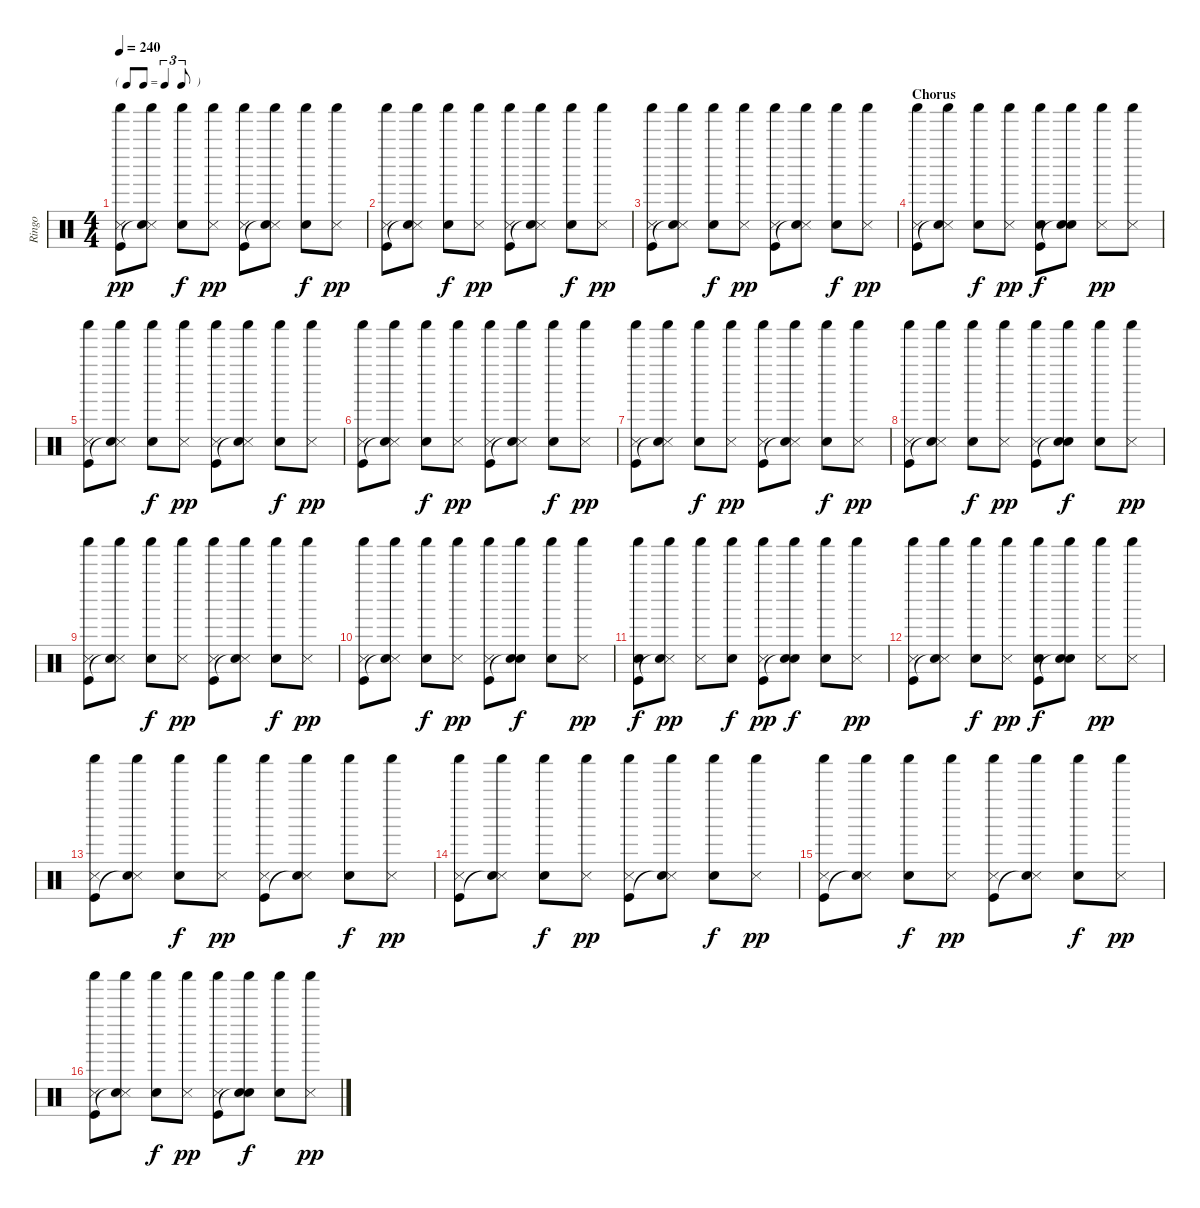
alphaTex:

\track ("Ringo" "Ringo") {instrument percussion}
\staff {score}
\articulation defaults
\ts (4 4)
\tf triplet8th
\tempo 240
\clef neutral
\ks c
("Shaker (hit)" "Snare (side stick) 3" "Kick (hit)").8{dy pp} ("Shaker (hit)" "Snare (side stick) 3" "Snare (hit)"{t}).8 ("Shaker (hit)" "Snare (hit) 2").8{dy f} ("Shaker (hit)" "Snare (side stick) 3").8{dy pp} ("Shaker (hit)" "Snare (side stick) 3" "Kick (hit)").8 ("Shaker (hit)" "Snare (side stick) 3" "Snare (hit)"{t}).8 ("Shaker (hit)" "Snare (hit) 2").8{dy f} ("Shaker (hit)" "Snare (side stick) 3").8{dy pp} |
("Shaker (hit)" "Snare (side stick) 3" "Kick (hit)").8 ("Shaker (hit)" "Snare (side stick) 3" "Snare (hit)"{t}).8 ("Shaker (hit)" "Snare (hit) 2").8{dy f} ("Shaker (hit)" "Snare (side stick) 3").8{dy pp} ("Shaker (hit)" "Snare (side stick) 3" "Kick (hit)").8 ("Shaker (hit)" "Snare (side stick) 3" "Snare (hit)"{t}).8 ("Shaker (hit)" "Snare (hit) 2").8{dy f} ("Shaker (hit)" "Snare (side stick) 3").8{dy pp} |
("Shaker (hit)" "Snare (side stick) 3" "Kick (hit)").8 ("Shaker (hit)" "Snare (side stick) 3" "Snare (hit)"{t}).8 ("Shaker (hit)" "Snare (hit) 2").8{dy f} ("Shaker (hit)" "Snare (side stick) 3").8{dy pp} ("Shaker (hit)" "Snare (side stick) 3" "Kick (hit)").8 ("Shaker (hit)" "Snare (side stick) 3" "Snare (hit)"{t}).8 ("Shaker (hit)" "Snare (hit) 2").8{dy f} ("Shaker (hit)" "Snare (side stick) 3").8{dy pp} |
\section ("" "Chorus")
("Shaker (hit)" "Snare (side stick) 3" "Kick (hit)").8 ("Shaker (hit)" "Snare (side stick) 3" "Snare (hit)"{t}).8 ("Shaker (hit)" "Snare (hit) 2").8{dy f} ("Shaker (hit)" "Snare (side stick) 3").8{dy pp} ("Shaker (hit)" "Snare (hit) 2" "Kick (hit)").8{dy f} ("Shaker (hit)" "Snare (hit) 2" "Snare (hit)"{t}).8 ("Shaker (hit)" "Snare (side stick) 3").8{dy pp} ("Shaker (hit)" "Snare (side stick) 3").8 |
("Shaker (hit)" "Snare (side stick) 3" "Kick (hit)").8 ("Shaker (hit)" "Snare (side stick) 3" "Snare (hit)"{t}).8 ("Shaker (hit)" "Snare (hit) 2").8{dy f} ("Shaker (hit)" "Snare (side stick) 3").8{dy pp} ("Shaker (hit)" "Snare (side stick) 3" "Kick (hit)").8 ("Shaker (hit)" "Snare (side stick) 3" "Snare (hit)"{t}).8 ("Shaker (hit)" "Snare (hit) 2").8{dy f} ("Shaker (hit)" "Snare (side stick) 3").8{dy pp} |
("Shaker (hit)" "Snare (side stick) 3" "Kick (hit)").8 ("Shaker (hit)" "Snare (side stick) 3" "Snare (hit)"{t}).8 ("Shaker (hit)" "Snare (hit) 2").8{dy f} ("Shaker (hit)" "Snare (side stick) 3").8{dy pp} ("Shaker (hit)" "Snare (side stick) 3" "Kick (hit)").8 ("Shaker (hit)" "Snare (side stick) 3" "Snare (hit)"{t}).8 ("Shaker (hit)" "Snare (hit) 2").8{dy f} ("Shaker (hit)" "Snare (side stick) 3").8{dy pp} |
("Shaker (hit)" "Snare (side stick) 3" "Kick (hit)").8 ("Shaker (hit)" "Snare (side stick) 3" "Snare (hit)"{t}).8 ("Shaker (hit)" "Snare (hit) 2").8{dy f} ("Shaker (hit)" "Snare (side stick) 3").8{dy pp} ("Shaker (hit)" "Snare (side stick) 3" "Kick (hit)").8 ("Shaker (hit)" "Snare (side stick) 3" "Snare (hit)"{t}).8 ("Shaker (hit)" "Snare (hit) 2").8{dy f} ("Shaker (hit)" "Snare (side stick) 3").8{dy pp} |
("Shaker (hit)" "Snare (side stick) 3" "Kick (hit)").8 ("Shaker (hit)" "Snare (side stick) 3" "Snare (hit)"{t}).8 ("Shaker (hit)" "Snare (hit) 2").8{dy f} ("Shaker (hit)" "Snare (side stick) 3").8{dy pp} ("Shaker (hit)" "Snare (side stick) 3" "Kick (hit)").8 ("Shaker (hit)" "Snare (hit) 2" "Snare (hit)"{t}).8{dy f} ("Shaker (hit)" "Snare (hit) 2").8 ("Shaker (hit)" "Snare (side stick) 3").8{dy pp} |
("Shaker (hit)" "Snare (side stick) 3" "Kick (hit)").8 ("Shaker (hit)" "Snare (side stick) 3" "Snare (hit)"{t}).8 ("Shaker (hit)" "Snare (hit) 2").8{dy f} ("Shaker (hit)" "Snare (side stick) 3").8{dy pp} ("Shaker (hit)" "Snare (side stick) 3" "Kick (hit)").8 ("Shaker (hit)" "Snare (side stick) 3" "Snare (hit)"{t}).8 ("Shaker (hit)" "Snare (hit) 2").8{dy f} ("Shaker (hit)" "Snare (side stick) 3").8{dy pp} |
("Shaker (hit)" "Snare (side stick) 3" "Kick (hit)").8 ("Shaker (hit)" "Snare (side stick) 3" "Snare (hit)"{t}).8 ("Shaker (hit)" "Snare (hit) 2").8{dy f} ("Shaker (hit)" "Snare (side stick) 3").8{dy pp} ("Shaker (hit)" "Snare (side stick) 3" "Kick (hit)").8 ("Shaker (hit)" "Snare (hit) 2" "Snare (hit)"{t}).8{dy f} ("Shaker (hit)" "Snare (hit) 2").8 ("Shaker (hit)" "Snare (side stick) 3").8{dy pp} |
("Shaker (hit)" "Snare (hit) 2" "Kick (hit)").8{dy f} ("Shaker (hit)" "Snare (side stick) 3" "Snare (hit)"{t}).8{dy pp} ("Shaker (hit)" "Snare (side stick) 3").8 ("Shaker (hit)" "Snare (hit) 2").8{dy f} ("Shaker (hit)" "Snare (side stick) 3" "Kick (hit)").8{dy pp} ("Shaker (hit)" "Snare (hit) 2" "Snare (hit)"{t}).8{dy f} ("Shaker (hit)" "Snare (hit) 2").8 ("Shaker (hit)" "Snare (side stick) 3").8{dy pp} |
("Shaker (hit)" "Snare (side stick) 3" "Kick (hit)").8 ("Shaker (hit)" "Snare (side stick) 3" "Snare (hit)"{t}).8 ("Shaker (hit)" "Snare (hit) 2").8{dy f} ("Shaker (hit)" "Snare (side stick) 3").8{dy pp} ("Shaker (hit)" "Snare (hit) 2" "Kick (hit)").8{dy f} ("Shaker (hit)" "Snare (hit) 2" "Snare (hit)"{t}).8 ("Shaker (hit)" "Snare (side stick) 3").8{dy pp} ("Shaker (hit)" "Snare (side stick) 3").8 |
("Shaker (hit)" "Snare (side stick) 3" "Kick (hit)").8 ("Shaker (hit)" "Snare (side stick) 3" "Snare (hit)"{t}).8 ("Shaker (hit)" "Snare (hit) 2").8{dy f} ("Shaker (hit)" "Snare (side stick) 3").8{dy pp} ("Shaker (hit)" "Snare (side stick) 3" "Kick (hit)").8 ("Shaker (hit)" "Snare (side stick) 3" "Snare (hit)"{t}).8 ("Shaker (hit)" "Snare (hit) 2").8{dy f} ("Shaker (hit)" "Snare (side stick) 3").8{dy pp} |
("Shaker (hit)" "Snare (side stick) 3" "Kick (hit)").8 ("Shaker (hit)" "Snare (side stick) 3" "Snare (hit)"{t}).8 ("Shaker (hit)" "Snare (hit) 2").8{dy f} ("Shaker (hit)" "Snare (side stick) 3").8{dy pp} ("Shaker (hit)" "Snare (side stick) 3" "Kick (hit)").8 ("Shaker (hit)" "Snare (side stick) 3" "Snare (hit)"{t}).8 ("Shaker (hit)" "Snare (hit) 2").8{dy f} ("Shaker (hit)" "Snare (side stick) 3").8{dy pp} |
("Shaker (hit)" "Snare (side stick) 3" "Kick (hit)").8 ("Shaker (hit)" "Snare (side stick) 3" "Snare (hit)"{t}).8 ("Shaker (hit)" "Snare (hit) 2").8{dy f} ("Shaker (hit)" "Snare (side stick) 3").8{dy pp} ("Shaker (hit)" "Snare (side stick) 3" "Kick (hit)").8 ("Shaker (hit)" "Snare (side stick) 3" "Snare (hit)"{t}).8 ("Shaker (hit)" "Snare (hit) 2").8{dy f} ("Shaker (hit)" "Snare (side stick) 3").8{dy pp} |
("Shaker (hit)" "Snare (side stick) 3" "Kick (hit)").8 ("Shaker (hit)" "Snare (side stick) 3" "Snare (hit)"{t}).8 ("Shaker (hit)" "Snare (hit) 2").8{dy f} ("Shaker (hit)" "Snare (side stick) 3").8{dy pp} ("Shaker (hit)" "Snare (side stick) 3" "Kick (hit)").8 ("Shaker (hit)" "Snare (hit) 2" "Snare (hit)"{t}).8{dy f} ("Shaker (hit)" "Snare (hit) 2").8 ("Shaker (hit)" "Snare (side stick) 3").8{dy pp}
